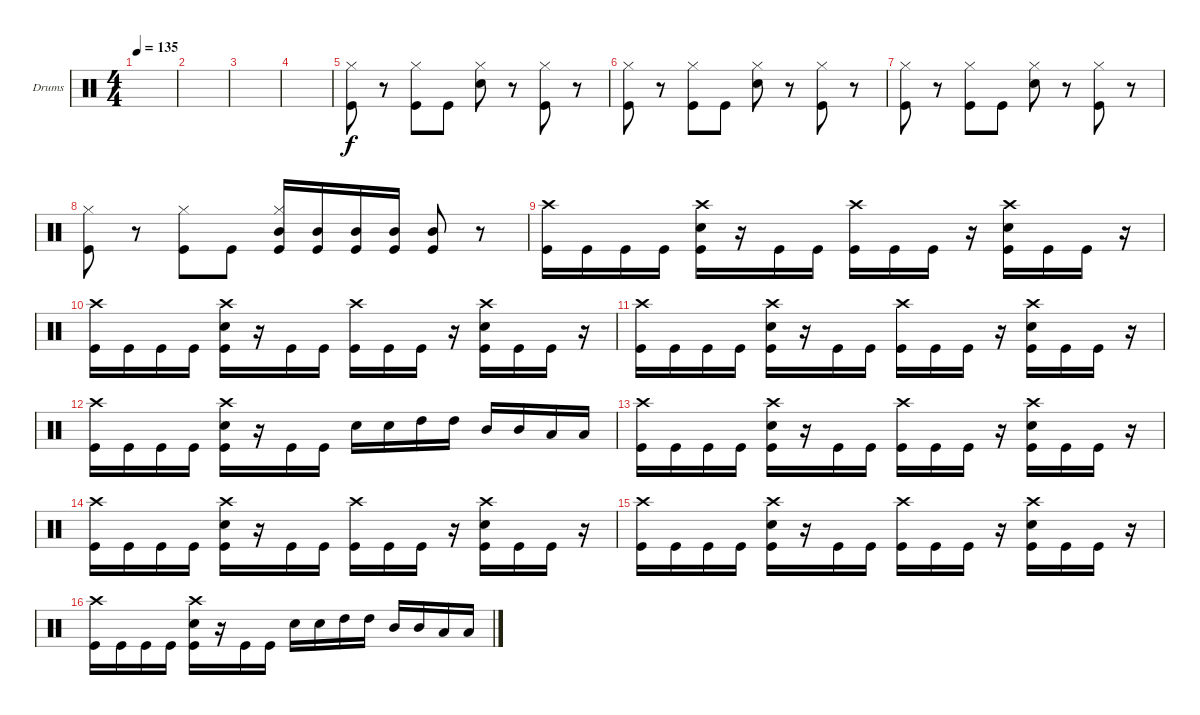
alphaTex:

\defaultSystemsLayout 4
\bracketExtendMode groupsimilarinstruments
\firstSystemTrackNameOrientation horizontal
\otherSystemsTrackNameOrientation horizontal
\track ("Rolo" "Drums") {instrument percussion}
\staff {score}
\articulation defaults
\ts (4 4)
\tempo 135
\clef neutral
\scale
0.474178
\ks c
|
\scale
0.262911 |
\scale
0.262911 |
\scale
0.333333 |
\scale
0.333333 ("Kick (hit)" "Hi-Hat (closed)").8 r.8 ("Kick (hit)" "Hi-Hat (closed)").8 "Kick (hit)".8 ("Snare (hit) 2" "Hi-Hat (closed)").8 r.8 ("Kick (hit)" "Hi-Hat (closed)").8 r.8 |
\scale
0.333333 ("Kick (hit)" "Hi-Hat (closed)").8 r.8 ("Kick (hit)" "Hi-Hat (closed)").8 "Kick (hit)".8 ("Snare (hit) 2" "Hi-Hat (closed)").8 r.8 ("Kick (hit)" "Hi-Hat (closed)").8 r.8 |
\scale
0.333333 ("Kick (hit)" "Hi-Hat (closed)").8 r.8 ("Kick (hit)" "Hi-Hat (closed)").8 "Kick (hit)".8 ("Snare (hit) 2" "Hi-Hat (closed)").8 r.8 ("Kick (hit)" "Hi-Hat (closed)").8 r.8 |
\scale
0.333333 ("Kick (hit)" "Hi-Hat (closed)").8 r.8 ("Kick (hit)" "Hi-Hat (closed)").8 "Kick (hit)".8 ("Hi-Hat (closed)" "Kick (hit)" "Mid Tom (hit)").16 ("Kick (hit)" "Mid Tom (hit)").16 ("Kick (hit)" "Mid Tom (hit)").16 ("Kick (hit)" "Mid Tom (hit)").16 ("Kick (hit)" "Mid Tom (hit)").8 r.8 |
\scale
0.333333 ("Kick (hit)" "Crash high (hit)").16 "Kick (hit)".16 "Kick (hit)".16 "Kick (hit)".16 ("Kick (hit)" "Snare (hit) 2" "Crash high (hit)").16 r.16 "Kick (hit)".16 "Kick (hit)".16 ("Kick (hit)" "Crash high (hit)").16 "Kick (hit)".16 "Kick (hit)".16 r.16 ("Kick (hit)" "Snare (hit) 2" "Crash high (hit)").16 "Kick (hit)".16 "Kick (hit)".16 r.16 |
\scale
0.333333 ("Kick (hit)" "Crash high (hit)").16 "Kick (hit)".16 "Kick (hit)".16 "Kick (hit)".16 ("Kick (hit)" "Snare (hit) 2" "Crash high (hit)").16 r.16 "Kick (hit)".16 "Kick (hit)".16 ("Kick (hit)" "Crash high (hit)").16 "Kick (hit)".16 "Kick (hit)".16 r.16 ("Kick (hit)" "Snare (hit) 2" "Crash high (hit)").16 "Kick (hit)".16 "Kick (hit)".16 r.16 |
\scale
0.333333 ("Kick (hit)" "Crash high (hit)").16 "Kick (hit)".16 "Kick (hit)".16 "Kick (hit)".16 ("Kick (hit)" "Snare (hit) 2" "Crash high (hit)").16 r.16 "Kick (hit)".16 "Kick (hit)".16 ("Kick (hit)" "Crash high (hit)").16 "Kick (hit)".16 "Kick (hit)".16 r.16 ("Kick (hit)" "Snare (hit) 2" "Crash high (hit)").16 "Kick (hit)".16 "Kick (hit)".16 r.16 |
\scale
0.333333 ("Kick (hit)" "Crash high (hit)").16 "Kick (hit)".16 "Kick (hit)".16 "Kick (hit)".16 ("Kick (hit)" "Snare (hit) 2" "Crash high (hit)").16 r.16 "Kick (hit)".16 "Kick (hit)".16 "Snare (hit) 2".16 "Snare (hit) 2".16 "High Tom (hit)".16 "High Tom (hit)".16 "Mid Tom (hit)".16 "Mid Tom (hit)".16 "Low Tom (hit)".16 "Low Tom (hit)".16 |
\scale
0.333333 ("Kick (hit)" "Crash high (hit)").16 "Kick (hit)".16 "Kick (hit)".16 "Kick (hit)".16 ("Kick (hit)" "Snare (hit) 2" "Crash high (hit)").16 r.16 "Kick (hit)".16 "Kick (hit)".16 ("Kick (hit)" "Crash high (hit)").16 "Kick (hit)".16 "Kick (hit)".16 r.16 ("Kick (hit)" "Snare (hit) 2" "Crash high (hit)").16 "Kick (hit)".16 "Kick (hit)".16 r.16 |
\scale
0.333333 ("Kick (hit)" "Crash high (hit)").16 "Kick (hit)".16 "Kick (hit)".16 "Kick (hit)".16 ("Kick (hit)" "Snare (hit) 2" "Crash high (hit)").16 r.16 "Kick (hit)".16 "Kick (hit)".16 ("Kick (hit)" "Crash high (hit)").16 "Kick (hit)".16 "Kick (hit)".16 r.16 ("Kick (hit)" "Snare (hit) 2" "Crash high (hit)").16 "Kick (hit)".16 "Kick (hit)".16 r.16 |
\scale
0.333333 ("Kick (hit)" "Crash high (hit)").16 "Kick (hit)".16 "Kick (hit)".16 "Kick (hit)".16 ("Kick (hit)" "Snare (hit) 2" "Crash high (hit)").16 r.16 "Kick (hit)".16 "Kick (hit)".16 ("Kick (hit)" "Crash high (hit)").16 "Kick (hit)".16 "Kick (hit)".16 r.16 ("Kick (hit)" "Snare (hit) 2" "Crash high (hit)").16 "Kick (hit)".16 "Kick (hit)".16 r.16 |
("Kick (hit)" "Crash high (hit)").16 "Kick (hit)".16 "Kick (hit)".16 "Kick (hit)".16 ("Kick (hit)" "Snare (hit) 2" "Crash high (hit)").16 r.16 "Kick (hit)".16 "Kick (hit)".16 "Snare (hit) 2".16 "Snare (hit) 2".16 "High Tom (hit)".16 "High Tom (hit)".16 "Mid Tom (hit)".16 "Mid Tom (hit)".16 "Low Tom (hit)".16 "Low Tom (hit)".16
